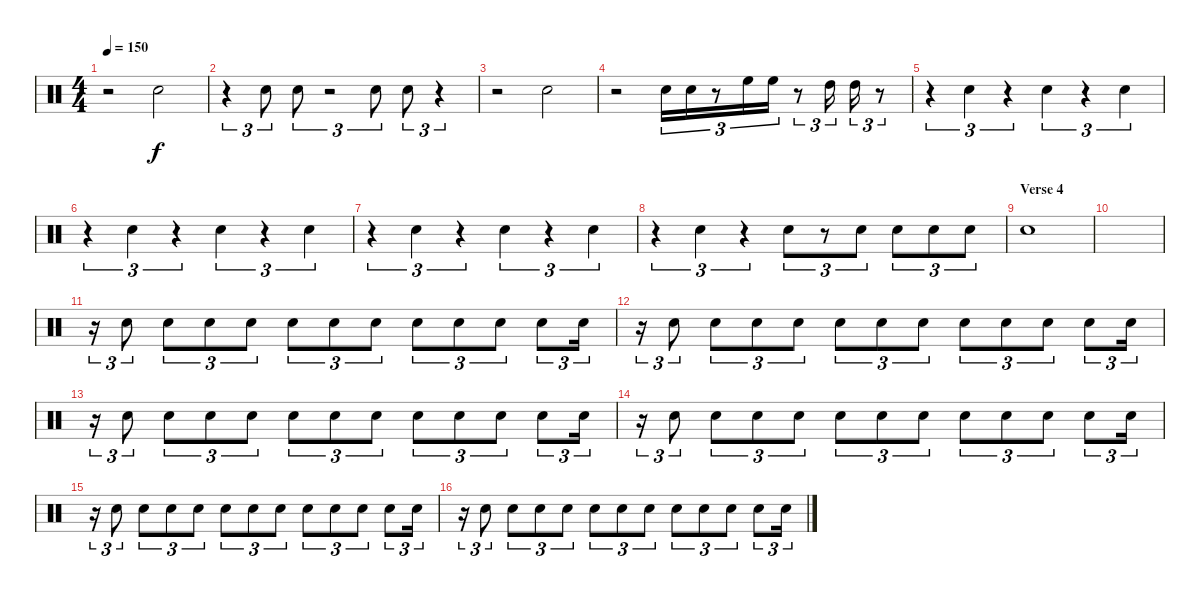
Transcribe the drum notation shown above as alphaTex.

\track "" {instrument percussion}
\staff {score}
\articulation defaults
\ts (4 4)
\tempo 150
\clef neutral
\ks c
r.2{dy f} "Electric Snare (hit)".2 |
r.4{tu (3 2)} "Electric Snare (hit)".8{tu (3 2)} "Electric Snare (hit)".8{tu (3 2)} r.2{tu (3 2)} "Electric Snare (hit)".8{tu (3 2)} "Electric Snare (hit)".8{tu (3 2)} r.4{tu (3 2)} |
r.2 "Electric Snare (hit)".2 |
r.2 "Electric Snare (hit)".16{tu (3 2)} "Electric Snare (hit)".16{tu (3 2)} r.8{tu (3 2)} "High Floor Tom (hit)".16{tu (3 2)} "High Floor Tom (hit)".16{tu (3 2)} r.8{tu (3 2)} "High Tom (hit)".16{tu (3 2)} "High Tom (hit)".16{tu (3 2)} r.8{tu (3 2)} |
r.4{tu (3 2)} "Electric Snare (hit)".4{tu (3 2)} r.4{tu (3 2)} "Electric Snare (hit)".4{tu (3 2)} r.4{tu (3 2)} "Electric Snare (hit)".4{tu (3 2)} |
r.4{tu (3 2)} "Electric Snare (hit)".4{tu (3 2)} r.4{tu (3 2)} "Electric Snare (hit)".4{tu (3 2)} r.4{tu (3 2)} "Electric Snare (hit)".4{tu (3 2)} |
r.4{tu (3 2)} "Electric Snare (hit)".4{tu (3 2)} r.4{tu (3 2)} "Electric Snare (hit)".4{tu (3 2)} r.4{tu (3 2)} "Electric Snare (hit)".4{tu (3 2)} |
r.4{tu (3 2)} "Electric Snare (hit)".4{tu (3 2)} r.4{tu (3 2)} "Electric Snare (hit)".8{tu (3 2)} r.8{tu (3 2)} "Electric Snare (hit)".8{tu (3 2)} "Electric Snare (hit)".8{tu (3 2)} "Electric Snare (hit)".8{tu (3 2)} "Electric Snare (hit)".8{tu (3 2)} |
\section ("" "Verse 4")
"Electric Snare (hit)".1 |
|
r.16{tu (3 2)} "Electric Snare (hit)".8{tu (3 2)} "Electric Snare (hit)".8{tu (3 2)} "Electric Snare (hit)".8{tu (3 2)} "Electric Snare (hit)".8{tu (3 2)} "Electric Snare (hit)".8{tu (3 2)} "Electric Snare (hit)".8{tu (3 2)} "Electric Snare (hit)".8{tu (3 2)} "Electric Snare (hit)".8{tu (3 2)} "Electric Snare (hit)".8{tu (3 2)} "Electric Snare (hit)".8{tu (3 2)} "Electric Snare (hit)".8{tu (3 2)} "Electric Snare (hit)".16{tu (3 2)} |
r.16{tu (3 2)} "Electric Snare (hit)".8{tu (3 2)} "Electric Snare (hit)".8{tu (3 2)} "Electric Snare (hit)".8{tu (3 2)} "Electric Snare (hit)".8{tu (3 2)} "Electric Snare (hit)".8{tu (3 2)} "Electric Snare (hit)".8{tu (3 2)} "Electric Snare (hit)".8{tu (3 2)} "Electric Snare (hit)".8{tu (3 2)} "Electric Snare (hit)".8{tu (3 2)} "Electric Snare (hit)".8{tu (3 2)} "Electric Snare (hit)".8{tu (3 2)} "Electric Snare (hit)".16{tu (3 2)} |
r.16{tu (3 2)} "Electric Snare (hit)".8{tu (3 2)} "Electric Snare (hit)".8{tu (3 2)} "Electric Snare (hit)".8{tu (3 2)} "Electric Snare (hit)".8{tu (3 2)} "Electric Snare (hit)".8{tu (3 2)} "Electric Snare (hit)".8{tu (3 2)} "Electric Snare (hit)".8{tu (3 2)} "Electric Snare (hit)".8{tu (3 2)} "Electric Snare (hit)".8{tu (3 2)} "Electric Snare (hit)".8{tu (3 2)} "Electric Snare (hit)".8{tu (3 2)} "Electric Snare (hit)".16{tu (3 2)} |
r.16{tu (3 2)} "Electric Snare (hit)".8{tu (3 2)} "Electric Snare (hit)".8{tu (3 2)} "Electric Snare (hit)".8{tu (3 2)} "Electric Snare (hit)".8{tu (3 2)} "Electric Snare (hit)".8{tu (3 2)} "Electric Snare (hit)".8{tu (3 2)} "Electric Snare (hit)".8{tu (3 2)} "Electric Snare (hit)".8{tu (3 2)} "Electric Snare (hit)".8{tu (3 2)} "Electric Snare (hit)".8{tu (3 2)} "Electric Snare (hit)".8{tu (3 2)} "Electric Snare (hit)".16{tu (3 2)} |
r.16{tu (3 2)} "Electric Snare (hit)".8{tu (3 2)} "Electric Snare (hit)".8{tu (3 2)} "Electric Snare (hit)".8{tu (3 2)} "Electric Snare (hit)".8{tu (3 2)} "Electric Snare (hit)".8{tu (3 2)} "Electric Snare (hit)".8{tu (3 2)} "Electric Snare (hit)".8{tu (3 2)} "Electric Snare (hit)".8{tu (3 2)} "Electric Snare (hit)".8{tu (3 2)} "Electric Snare (hit)".8{tu (3 2)} "Electric Snare (hit)".8{tu (3 2)} "Electric Snare (hit)".16{tu (3 2)} |
r.16{tu (3 2)} "Electric Snare (hit)".8{tu (3 2)} "Electric Snare (hit)".8{tu (3 2)} "Electric Snare (hit)".8{tu (3 2)} "Electric Snare (hit)".8{tu (3 2)} "Electric Snare (hit)".8{tu (3 2)} "Electric Snare (hit)".8{tu (3 2)} "Electric Snare (hit)".8{tu (3 2)} "Electric Snare (hit)".8{tu (3 2)} "Electric Snare (hit)".8{tu (3 2)} "Electric Snare (hit)".8{tu (3 2)} "Electric Snare (hit)".8{tu (3 2)} "Electric Snare (hit)".16{tu (3 2)}
